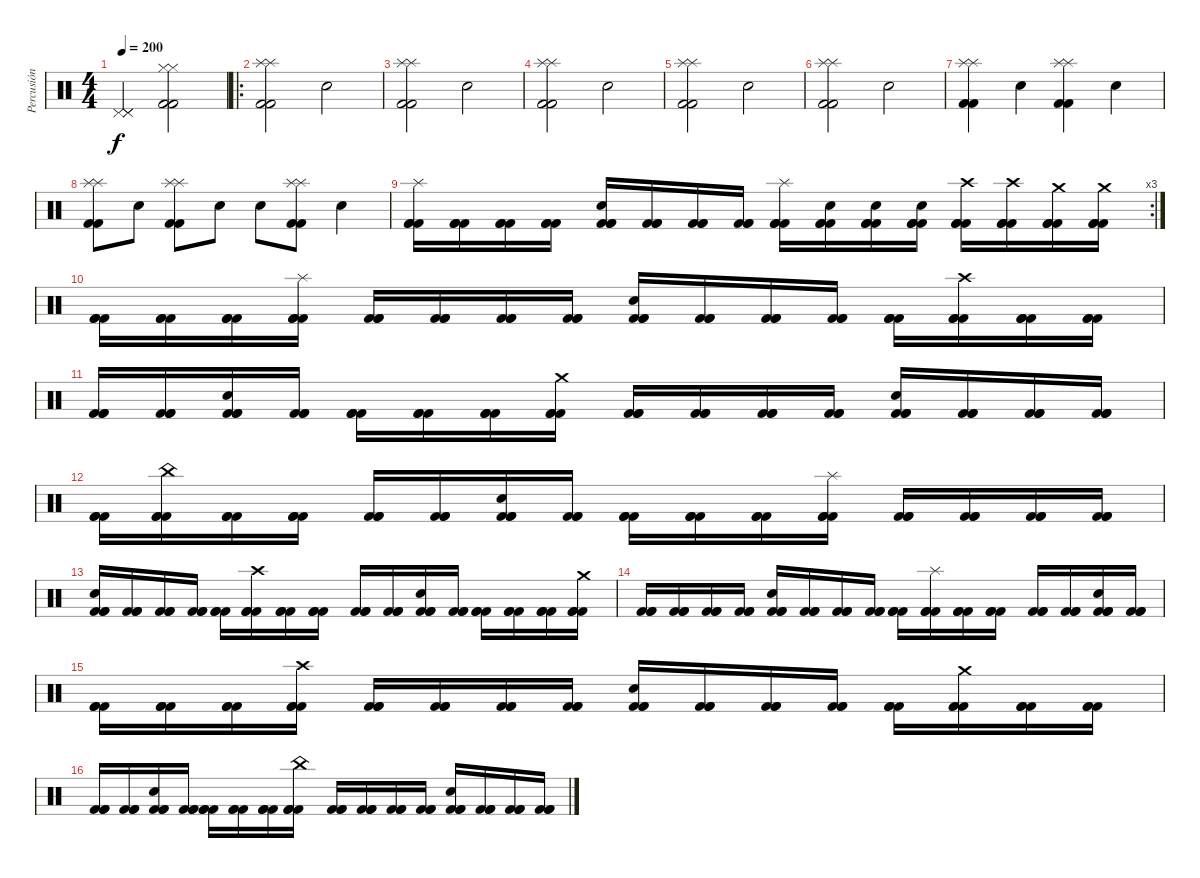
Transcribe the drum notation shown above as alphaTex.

\track ("Percusión" "Percusión") {instrument percussion}
\staff {score}
\articulation defaults
\ts (4 4)
\tempo 200
\clef neutral
\ks c
("Pedal Hi-Hat (hit)" "Pedal Hi-Hat (hit)" "Pedal Hi-Hat (hit)").2{dy f} ("Hi-Hat (closed)" "Hi-Hat (closed)" "Kick (hit) 2" "Kick (hit) 2").2 |
\ro
("Kick (hit) 2" "Splash (hit)" "Splash (hit)" "Kick (hit) 2").2 "Electric Snare (hit)".2 |
("Splash (hit)" "Splash (hit)" "Kick (hit) 2" "Kick (hit) 2").2 "Electric Snare (hit)".2 |
("Splash (hit)" "Splash (hit)" "Kick (hit) 2" "Kick (hit) 2").2 "Electric Snare (hit)".2 |
("Splash (hit)" "Splash (hit)" "Kick (hit) 2" "Kick (hit) 2").2 "Electric Snare (hit)".2 |
("Splash (hit)" "Splash (hit)" "Kick (hit) 2" "Kick (hit) 2").2 "Electric Snare (hit)".2 |
("Splash (hit)" "Splash (hit)" "Kick (hit) 2" "Kick (hit) 2").4 "Electric Snare (hit)".4 ("Splash (hit)" "Splash (hit)" "Kick (hit) 2" "Kick (hit) 2").4 "Electric Snare (hit)".4 |
("Splash (hit)" "Splash (hit)" "Kick (hit) 2" "Kick (hit) 2").8 "Electric Snare (hit)".8 ("Splash (hit)" "Splash (hit)" "Kick (hit) 2" "Kick (hit) 2").8 "Electric Snare (hit)".8 "Electric Snare (hit)".8 ("Splash (hit)" "Splash (hit)" "Kick (hit) 2" "Kick (hit) 2").8 "Electric Snare (hit)".4 |
\rc 3
("Splash (hit)" "Kick (hit) 2" "Kick (hit) 2" "Kick (hit) 2").16 ("Kick (hit) 2" "Kick (hit) 2" "Kick (hit) 2").16 ("Kick (hit) 2" "Kick (hit) 2" "Kick (hit) 2").16 ("Kick (hit) 2" "Kick (hit) 2" "Kick (hit) 2").16 ("Electric Snare (hit)" "Kick (hit) 2" "Kick (hit) 2" "Kick (hit) 2").16 ("Kick (hit) 2" "Kick (hit) 2" "Kick (hit) 2").16 ("Kick (hit) 2" "Kick (hit) 2" "Kick (hit) 2").16 ("Kick (hit) 2" "Kick (hit) 2" "Kick (hit) 2").16 ("Splash (hit)" "Kick (hit) 2" "Kick (hit) 2" "Kick (hit) 2").16 ("Electric Snare (hit)" "Kick (hit) 2" "Kick (hit) 2" "Kick (hit) 2").16 ("Electric Snare (hit)" "Kick (hit) 2" "Kick (hit) 2" "Kick (hit) 2").16 ("Electric Snare (hit)" "Kick (hit) 2" "Kick (hit) 2" "Kick (hit) 2").16 ("Crash high (hit)" "Kick (hit) 2" "Kick (hit) 2" "Kick (hit) 2").16 ("Crash high (hit)" "Kick (hit) 2" "Kick (hit) 2" "Kick (hit) 2").16 ("Crash medium (hit)" "Kick (hit) 2" "Kick (hit) 2" "Kick (hit) 2").16 ("Crash medium (hit)" "Kick (hit) 2" "Kick (hit) 2" "Kick (hit) 2").16 |
("Kick (hit) 2" "Kick (hit) 2" "Kick (hit) 2").16 ("Kick (hit) 2" "Kick (hit) 2" "Kick (hit) 2").16 ("Kick (hit) 2" "Kick (hit) 2" "Kick (hit) 2").16 ("Splash (hit)" "Kick (hit) 2" "Kick (hit) 2" "Kick (hit) 2").16 ("Kick (hit) 2" "Kick (hit) 2" "Kick (hit) 2").16 ("Kick (hit) 2" "Kick (hit) 2" "Kick (hit) 2").16 ("Kick (hit) 2" "Kick (hit) 2" "Kick (hit) 2").16 ("Kick (hit) 2" "Kick (hit) 2" "Kick (hit) 2").16 ("Electric Snare (hit)" "Kick (hit) 2" "Kick (hit) 2" "Kick (hit) 2").16 ("Kick (hit) 2" "Kick (hit) 2" "Kick (hit) 2").16 ("Kick (hit) 2" "Kick (hit) 2" "Kick (hit) 2").16 ("Kick (hit) 2" "Kick (hit) 2" "Kick (hit) 2").16 ("Kick (hit) 2" "Kick (hit) 2" "Kick (hit) 2").16 ("Crash high (hit)" "Kick (hit) 2" "Kick (hit) 2" "Kick (hit) 2").16 ("Kick (hit) 2" "Kick (hit) 2" "Kick (hit) 2").16 ("Kick (hit) 2" "Kick (hit) 2" "Kick (hit) 2").16 |
("Kick (hit) 2" "Kick (hit) 2" "Kick (hit) 2").16 ("Kick (hit) 2" "Kick (hit) 2" "Kick (hit) 2").16 ("Electric Snare (hit)" "Kick (hit) 2" "Kick (hit) 2" "Kick (hit) 2").16 ("Kick (hit) 2" "Kick (hit) 2" "Kick (hit) 2").16 ("Kick (hit) 2" "Kick (hit) 2" "Kick (hit) 2").16 ("Kick (hit) 2" "Kick (hit) 2" "Kick (hit) 2").16 ("Kick (hit) 2" "Kick (hit) 2" "Kick (hit) 2").16 ("Crash medium (hit)" "Kick (hit) 2" "Kick (hit) 2" "Kick (hit) 2").16 ("Kick (hit) 2" "Kick (hit) 2" "Kick (hit) 2").16 ("Kick (hit) 2" "Kick (hit) 2" "Kick (hit) 2").16 ("Kick (hit) 2" "Kick (hit) 2" "Kick (hit) 2").16 ("Kick (hit) 2" "Kick (hit) 2" "Kick (hit) 2").16 ("Electric Snare (hit)" "Kick (hit) 2" "Kick (hit) 2" "Kick (hit) 2").16 ("Kick (hit) 2" "Kick (hit) 2" "Kick (hit) 2").16 ("Kick (hit) 2" "Kick (hit) 2" "Kick (hit) 2").16 ("Kick (hit) 2" "Kick (hit) 2" "Kick (hit) 2").16 |
("Kick (hit) 2" "Kick (hit) 2" "Kick (hit) 2").16 ("China (hit)" "Kick (hit) 2" "Kick (hit) 2" "Kick (hit) 2").16 ("Kick (hit) 2" "Kick (hit) 2" "Kick (hit) 2").16 ("Kick (hit) 2" "Kick (hit) 2" "Kick (hit) 2").16 ("Kick (hit) 2" "Kick (hit) 2" "Kick (hit) 2").16 ("Kick (hit) 2" "Kick (hit) 2" "Kick (hit) 2").16 ("Electric Snare (hit)" "Kick (hit) 2" "Kick (hit) 2" "Kick (hit) 2").16 ("Kick (hit) 2" "Kick (hit) 2" "Kick (hit) 2").16 ("Kick (hit) 2" "Kick (hit) 2" "Kick (hit) 2").16 ("Kick (hit) 2" "Kick (hit) 2" "Kick (hit) 2").16 ("Kick (hit) 2" "Kick (hit) 2" "Kick (hit) 2").16 ("Splash (hit)" "Kick (hit) 2" "Kick (hit) 2" "Kick (hit) 2").16 ("Kick (hit) 2" "Kick (hit) 2" "Kick (hit) 2").16 ("Kick (hit) 2" "Kick (hit) 2" "Kick (hit) 2").16 ("Kick (hit) 2" "Kick (hit) 2" "Kick (hit) 2").16 ("Kick (hit) 2" "Kick (hit) 2" "Kick (hit) 2").16 |
("Electric Snare (hit)" "Kick (hit) 2" "Kick (hit) 2" "Kick (hit) 2").16 ("Kick (hit) 2" "Kick (hit) 2" "Kick (hit) 2").16 ("Kick (hit) 2" "Kick (hit) 2" "Kick (hit) 2").16 ("Kick (hit) 2" "Kick (hit) 2" "Kick (hit) 2").16 ("Kick (hit) 2" "Kick (hit) 2" "Kick (hit) 2").16 ("Crash high (hit)" "Kick (hit) 2" "Kick (hit) 2" "Kick (hit) 2").16 ("Kick (hit) 2" "Kick (hit) 2" "Kick (hit) 2").16 ("Kick (hit) 2" "Kick (hit) 2" "Kick (hit) 2").16 ("Kick (hit) 2" "Kick (hit) 2" "Kick (hit) 2").16 ("Kick (hit) 2" "Kick (hit) 2" "Kick (hit) 2").16 ("Electric Snare (hit)" "Kick (hit) 2" "Kick (hit) 2" "Kick (hit) 2").16 ("Kick (hit) 2" "Kick (hit) 2" "Kick (hit) 2").16 ("Kick (hit) 2" "Kick (hit) 2" "Kick (hit) 2").16 ("Kick (hit) 2" "Kick (hit) 2" "Kick (hit) 2").16 ("Kick (hit) 2" "Kick (hit) 2" "Kick (hit) 2").16 ("Crash medium (hit)" "Kick (hit) 2" "Kick (hit) 2" "Kick (hit) 2").16 |
("Kick (hit) 2" "Kick (hit) 2" "Kick (hit) 2").16 ("Kick (hit) 2" "Kick (hit) 2" "Kick (hit) 2").16 ("Kick (hit) 2" "Kick (hit) 2" "Kick (hit) 2").16 ("Kick (hit) 2" "Kick (hit) 2" "Kick (hit) 2").16 ("Electric Snare (hit)" "Kick (hit) 2" "Kick (hit) 2" "Kick (hit) 2").16 ("Kick (hit) 2" "Kick (hit) 2" "Kick (hit) 2").16 ("Kick (hit) 2" "Kick (hit) 2" "Kick (hit) 2").16 ("Kick (hit) 2" "Kick (hit) 2" "Kick (hit) 2").16 ("Kick (hit) 2" "Kick (hit) 2" "Kick (hit) 2").16 ("Splash (hit)" "Kick (hit) 2" "Kick (hit) 2" "Kick (hit) 2").16 ("Kick (hit) 2" "Kick (hit) 2" "Kick (hit) 2").16 ("Kick (hit) 2" "Kick (hit) 2" "Kick (hit) 2").16 ("Kick (hit) 2" "Kick (hit) 2" "Kick (hit) 2").16 ("Kick (hit) 2" "Kick (hit) 2" "Kick (hit) 2").16 ("Electric Snare (hit)" "Kick (hit) 2" "Kick (hit) 2" "Kick (hit) 2").16 ("Kick (hit) 2" "Kick (hit) 2" "Kick (hit) 2").16 |
("Kick (hit) 2" "Kick (hit) 2" "Kick (hit) 2").16 ("Kick (hit) 2" "Kick (hit) 2" "Kick (hit) 2").16 ("Kick (hit) 2" "Kick (hit) 2" "Kick (hit) 2").16 ("Crash high (hit)" "Kick (hit) 2" "Kick (hit) 2" "Kick (hit) 2").16 ("Kick (hit) 2" "Kick (hit) 2" "Kick (hit) 2").16 ("Kick (hit) 2" "Kick (hit) 2" "Kick (hit) 2").16 ("Kick (hit) 2" "Kick (hit) 2" "Kick (hit) 2").16 ("Kick (hit) 2" "Kick (hit) 2" "Kick (hit) 2").16 ("Electric Snare (hit)" "Kick (hit) 2" "Kick (hit) 2" "Kick (hit) 2").16 ("Kick (hit) 2" "Kick (hit) 2" "Kick (hit) 2").16 ("Kick (hit) 2" "Kick (hit) 2" "Kick (hit) 2").16 ("Kick (hit) 2" "Kick (hit) 2" "Kick (hit) 2").16 ("Kick (hit) 2" "Kick (hit) 2" "Kick (hit) 2").16 ("Crash medium (hit)" "Kick (hit) 2" "Kick (hit) 2" "Kick (hit) 2").16 ("Kick (hit) 2" "Kick (hit) 2" "Kick (hit) 2").16 ("Kick (hit) 2" "Kick (hit) 2" "Kick (hit) 2").16 |
("Kick (hit) 2" "Kick (hit) 2" "Kick (hit) 2").16 ("Kick (hit) 2" "Kick (hit) 2" "Kick (hit) 2").16 ("Electric Snare (hit)" "Kick (hit) 2" "Kick (hit) 2" "Kick (hit) 2").16 ("Kick (hit) 2" "Kick (hit) 2" "Kick (hit) 2").16 ("Kick (hit) 2" "Kick (hit) 2" "Kick (hit) 2").16 ("Kick (hit) 2" "Kick (hit) 2" "Kick (hit) 2").16 ("Kick (hit) 2" "Kick (hit) 2" "Kick (hit) 2").16 ("China (hit)" "Kick (hit) 2" "Kick (hit) 2" "Kick (hit) 2").16 ("Kick (hit) 2" "Kick (hit) 2" "Kick (hit) 2").16 ("Kick (hit) 2" "Kick (hit) 2" "Kick (hit) 2").16 ("Kick (hit) 2" "Kick (hit) 2" "Kick (hit) 2").16 ("Kick (hit) 2" "Kick (hit) 2" "Kick (hit) 2").16 ("Electric Snare (hit)" "Kick (hit) 2" "Kick (hit) 2" "Kick (hit) 2").16 ("Kick (hit) 2" "Kick (hit) 2" "Kick (hit) 2").16 ("Kick (hit) 2" "Kick (hit) 2" "Kick (hit) 2").16 ("Kick (hit) 2" "Kick (hit) 2" "Kick (hit) 2").16
